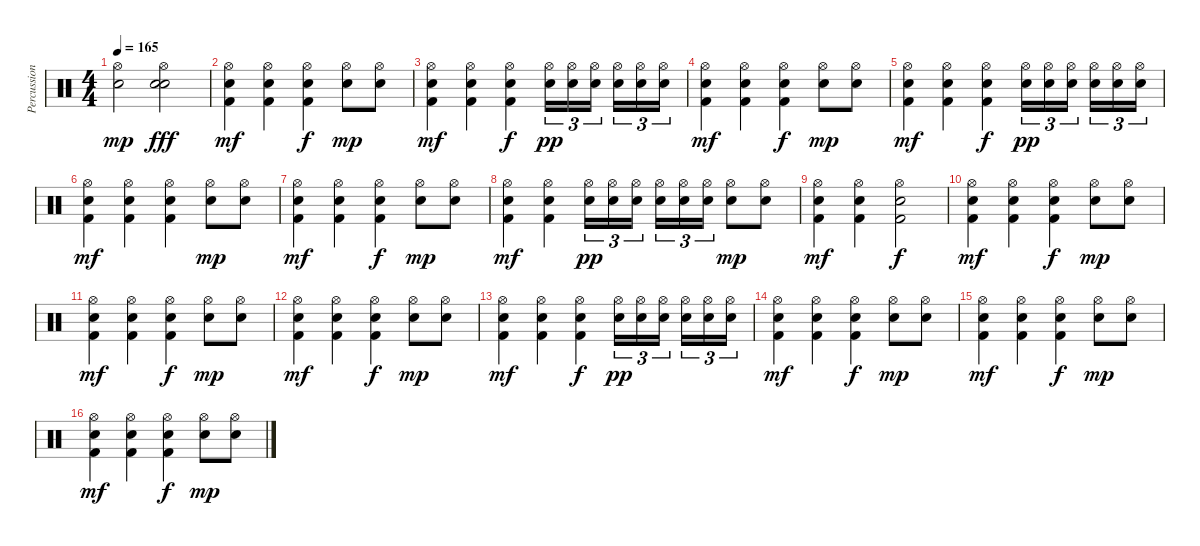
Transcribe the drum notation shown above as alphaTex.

\track ("Percussion" "Percussion") {instrument percussion}
\staff {score}
\articulation defaults
\ts (4 4)
\tempo 165
\clef neutral
\ks c
("Hi-Hat (open)" "Electric Snare (hit)").2{dy mp} ("Hi-Hat (open)" "Electric Snare (hit)" "Snare (hit) 2").2{dy fff} |
("Hi-Hat (open)" "Electric Snare (hit)" "Kick (hit) 2").4{dy mf} ("Hi-Hat (open)" "Electric Snare (hit)" "Kick (hit) 2").4 ("Hi-Hat (open)" "Electric Snare (hit)" "Kick (hit) 2").4{dy f} ("Hi-Hat (open)" "Electric Snare (hit)").8{dy mp} ("Hi-Hat (open)" "Electric Snare (hit)").8 |
("Hi-Hat (open)" "Electric Snare (hit)" "Kick (hit) 2").4{dy mf} ("Hi-Hat (open)" "Electric Snare (hit)" "Kick (hit) 2").4 ("Hi-Hat (open)" "Electric Snare (hit)" "Kick (hit) 2").4{dy f} ("Hi-Hat (open)" "Electric Snare (hit)").16{tu (3 2) dy pp} ("Hi-Hat (open)" "Electric Snare (hit)").16{tu (3 2)} ("Hi-Hat (open)" "Electric Snare (hit)").16{tu (3 2) beam splitsecondary} ("Hi-Hat (open)" "Electric Snare (hit)").16{tu (3 2)} ("Hi-Hat (open)" "Electric Snare (hit)").16{tu (3 2)} ("Hi-Hat (open)" "Electric Snare (hit)").16{tu (3 2)} |
("Hi-Hat (open)" "Electric Snare (hit)" "Kick (hit) 2").4{dy mf} ("Hi-Hat (open)" "Electric Snare (hit)" "Kick (hit) 2").4 ("Hi-Hat (open)" "Electric Snare (hit)" "Kick (hit) 2").4{dy f} ("Hi-Hat (open)" "Electric Snare (hit)").8{dy mp} ("Hi-Hat (open)" "Electric Snare (hit)").8 |
("Hi-Hat (open)" "Electric Snare (hit)" "Kick (hit) 2").4{dy mf} ("Hi-Hat (open)" "Electric Snare (hit)" "Kick (hit) 2").4 ("Hi-Hat (open)" "Electric Snare (hit)" "Kick (hit) 2").4{dy f} ("Hi-Hat (open)" "Electric Snare (hit)").16{tu (3 2) dy pp} ("Hi-Hat (open)" "Electric Snare (hit)").16{tu (3 2)} ("Hi-Hat (open)" "Electric Snare (hit)").16{tu (3 2) beam splitsecondary} ("Hi-Hat (open)" "Electric Snare (hit)").16{tu (3 2)} ("Hi-Hat (open)" "Electric Snare (hit)").16{tu (3 2)} ("Hi-Hat (open)" "Electric Snare (hit)").16{tu (3 2)} |
("Hi-Hat (open)" "Electric Snare (hit)" "Kick (hit) 2").4{dy mf} ("Hi-Hat (open)" "Electric Snare (hit)" "Kick (hit) 2").4 ("Hi-Hat (open)" "Electric Snare (hit)" "Kick (hit) 2").4 ("Hi-Hat (open)" "Electric Snare (hit)").8{dy mp} ("Hi-Hat (open)" "Electric Snare (hit)").8 |
("Hi-Hat (open)" "Electric Snare (hit)" "Kick (hit) 2").4{dy mf} ("Hi-Hat (open)" "Electric Snare (hit)" "Kick (hit) 2").4 ("Hi-Hat (open)" "Electric Snare (hit)" "Kick (hit) 2").4{dy f} ("Hi-Hat (open)" "Electric Snare (hit)").8{dy mp} ("Hi-Hat (open)" "Electric Snare (hit)").8 |
("Hi-Hat (open)" "Electric Snare (hit)" "Kick (hit) 2").4{dy mf} ("Hi-Hat (open)" "Electric Snare (hit)" "Kick (hit) 2").4 ("Hi-Hat (open)" "Electric Snare (hit)").16{tu (3 2) dy pp} ("Hi-Hat (open)" "Electric Snare (hit)").16{tu (3 2)} ("Hi-Hat (open)" "Electric Snare (hit)").16{tu (3 2) beam splitsecondary} ("Hi-Hat (open)" "Electric Snare (hit)").16{tu (3 2)} ("Hi-Hat (open)" "Electric Snare (hit)").16{tu (3 2)} ("Hi-Hat (open)" "Electric Snare (hit)").16{tu (3 2)} ("Hi-Hat (open)" "Electric Snare (hit)").8{dy mp} ("Hi-Hat (open)" "Electric Snare (hit)").8 |
("Hi-Hat (open)" "Electric Snare (hit)" "Kick (hit) 2").4{dy mf} ("Hi-Hat (open)" "Electric Snare (hit)" "Kick (hit) 2").4 ("Hi-Hat (open)" "Electric Snare (hit)" "Kick (hit) 2").2{dy f} |
("Hi-Hat (open)" "Electric Snare (hit)" "Kick (hit) 2").4{dy mf} ("Hi-Hat (open)" "Electric Snare (hit)" "Kick (hit) 2").4 ("Hi-Hat (open)" "Electric Snare (hit)" "Kick (hit) 2").4{dy f} ("Hi-Hat (open)" "Electric Snare (hit)").8{dy mp} ("Hi-Hat (open)" "Electric Snare (hit)").8 |
("Hi-Hat (open)" "Electric Snare (hit)" "Kick (hit) 2").4{dy mf} ("Hi-Hat (open)" "Electric Snare (hit)" "Kick (hit) 2").4 ("Hi-Hat (open)" "Electric Snare (hit)" "Kick (hit) 2").4{dy f} ("Hi-Hat (open)" "Electric Snare (hit)").8{dy mp} ("Hi-Hat (open)" "Electric Snare (hit)").8 |
("Hi-Hat (open)" "Electric Snare (hit)" "Kick (hit) 2").4{dy mf} ("Hi-Hat (open)" "Electric Snare (hit)" "Kick (hit) 2").4 ("Hi-Hat (open)" "Electric Snare (hit)" "Kick (hit) 2").4{dy f} ("Hi-Hat (open)" "Electric Snare (hit)").8{dy mp} ("Hi-Hat (open)" "Electric Snare (hit)").8 |
("Hi-Hat (open)" "Electric Snare (hit)" "Kick (hit) 2").4{dy mf} ("Hi-Hat (open)" "Electric Snare (hit)" "Kick (hit) 2").4 ("Hi-Hat (open)" "Electric Snare (hit)" "Kick (hit) 2").4{dy f} ("Hi-Hat (open)" "Electric Snare (hit)").16{tu (3 2) dy pp} ("Hi-Hat (open)" "Electric Snare (hit)").16{tu (3 2)} ("Hi-Hat (open)" "Electric Snare (hit)").16{tu (3 2) beam splitsecondary} ("Hi-Hat (open)" "Electric Snare (hit)").16{tu (3 2)} ("Hi-Hat (open)" "Electric Snare (hit)").16{tu (3 2)} ("Hi-Hat (open)" "Electric Snare (hit)").16{tu (3 2)} |
("Hi-Hat (open)" "Electric Snare (hit)" "Kick (hit) 2").4{dy mf} ("Hi-Hat (open)" "Electric Snare (hit)" "Kick (hit) 2").4 ("Hi-Hat (open)" "Electric Snare (hit)" "Kick (hit) 2").4{dy f} ("Hi-Hat (open)" "Electric Snare (hit)").8{dy mp} ("Hi-Hat (open)" "Electric Snare (hit)").8 |
("Hi-Hat (open)" "Electric Snare (hit)" "Kick (hit) 2").4{dy mf} ("Hi-Hat (open)" "Electric Snare (hit)" "Kick (hit) 2").4 ("Hi-Hat (open)" "Electric Snare (hit)" "Kick (hit) 2").4{dy f} ("Hi-Hat (open)" "Electric Snare (hit)").8{dy mp} ("Hi-Hat (open)" "Electric Snare (hit)").8 |
("Hi-Hat (open)" "Electric Snare (hit)" "Kick (hit) 2").4{dy mf} ("Hi-Hat (open)" "Electric Snare (hit)" "Kick (hit) 2").4 ("Hi-Hat (open)" "Electric Snare (hit)" "Kick (hit) 2").4{dy f} ("Hi-Hat (open)" "Electric Snare (hit)").8{dy mp} ("Hi-Hat (open)" "Electric Snare (hit)").8
